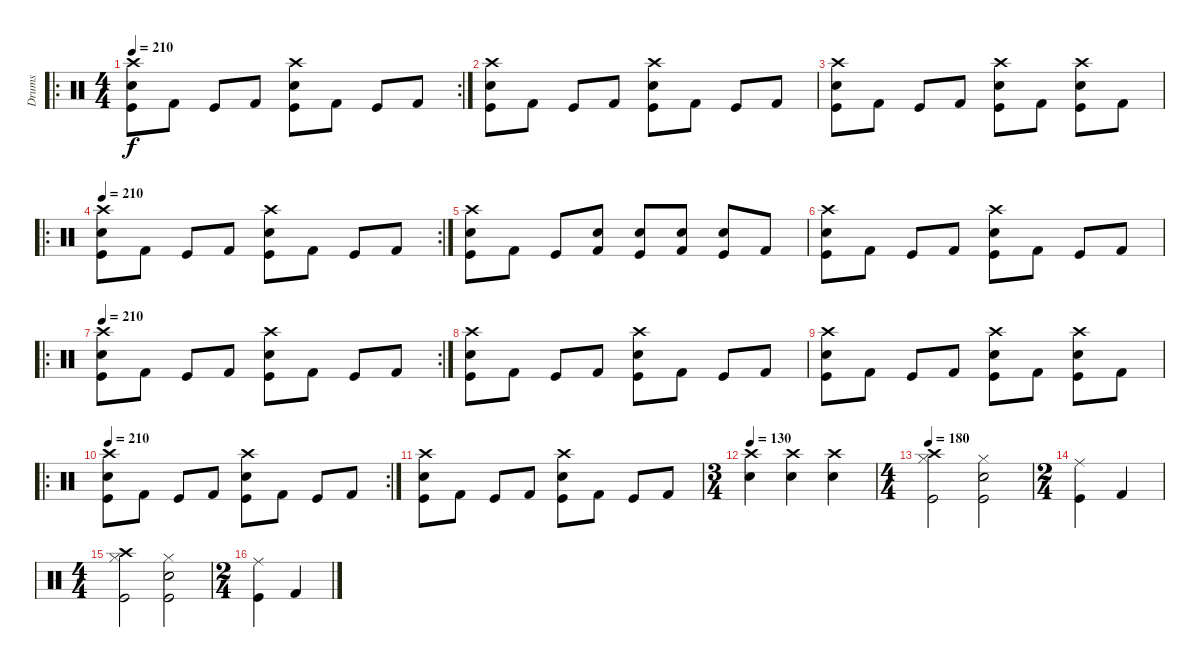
\track ("Drums" "Drums") {instrument percussion}
\staff {score}
\articulation defaults
\ro
\rc 2
\ts (4 4)
\tempo 210
\clef neutral
\ks c
("Crash high (hit)" "Snare (hit) 2" "Kick (hit)").8{dy f} "Kick (hit) 2".8 "Kick (hit)".8 "Kick (hit) 2".8 ("Crash high (hit)" "Snare (hit) 2" "Kick (hit)").8 "Kick (hit) 2".8 "Kick (hit)".8 "Kick (hit) 2".8 |
("Crash high (hit)" "Snare (hit) 2" "Kick (hit)").8 "Kick (hit) 2".8 "Kick (hit)".8 "Kick (hit) 2".8 ("Crash high (hit)" "Snare (hit) 2" "Kick (hit)").8 "Kick (hit) 2".8 "Kick (hit)".8 "Kick (hit) 2".8 |
("Crash high (hit)" "Snare (hit) 2" "Kick (hit)").8 "Kick (hit) 2".8 "Kick (hit)".8 "Kick (hit) 2".8 ("Crash high (hit)" "Snare (hit) 2" "Kick (hit)").8 "Kick (hit) 2".8 ("Crash high (hit)" "Snare (hit) 2" "Kick (hit)").8 "Kick (hit) 2".8 |
\ro
\rc 2
\tempo 210
("Crash high (hit)" "Snare (hit) 2" "Kick (hit)").8 "Kick (hit) 2".8 "Kick (hit)".8 "Kick (hit) 2".8 ("Crash high (hit)" "Snare (hit) 2" "Kick (hit)").8 "Kick (hit) 2".8 "Kick (hit)".8 "Kick (hit) 2".8 |
("Crash high (hit)" "Snare (hit) 2" "Kick (hit)").8 "Kick (hit) 2".8 "Kick (hit)".8 ("Snare (hit) 2" "Kick (hit) 2").8 ("Snare (hit) 2" "Kick (hit)").8 ("Snare (hit) 2" "Kick (hit) 2").8 ("Snare (hit) 2" "Kick (hit)").8 "Kick (hit) 2".8 |
("Crash high (hit)" "Snare (hit) 2" "Kick (hit)").8 "Kick (hit) 2".8 "Kick (hit)".8 "Kick (hit) 2".8 ("Crash high (hit)" "Snare (hit) 2" "Kick (hit)").8 "Kick (hit) 2".8 "Kick (hit)".8 "Kick (hit) 2".8 |
\ro
\rc 2
\tempo 210
("Crash high (hit)" "Snare (hit) 2" "Kick (hit)").8 "Kick (hit) 2".8 "Kick (hit)".8 "Kick (hit) 2".8 ("Crash high (hit)" "Snare (hit) 2" "Kick (hit)").8 "Kick (hit) 2".8 "Kick (hit)".8 "Kick (hit) 2".8 |
("Crash high (hit)" "Snare (hit) 2" "Kick (hit)").8 "Kick (hit) 2".8 "Kick (hit)".8 "Kick (hit) 2".8 ("Crash high (hit)" "Snare (hit) 2" "Kick (hit)").8 "Kick (hit) 2".8 "Kick (hit)".8 "Kick (hit) 2".8 |
("Crash high (hit)" "Snare (hit) 2" "Kick (hit)").8 "Kick (hit) 2".8 "Kick (hit)".8 "Kick (hit) 2".8 ("Crash high (hit)" "Snare (hit) 2" "Kick (hit)").8 "Kick (hit) 2".8 ("Crash high (hit)" "Snare (hit) 2" "Kick (hit)").8 "Kick (hit) 2".8 |
\ro
\rc 2
\tempo 210
("Crash high (hit)" "Snare (hit) 2" "Kick (hit)").8 "Kick (hit) 2".8 "Kick (hit)".8 "Kick (hit) 2".8 ("Crash high (hit)" "Snare (hit) 2" "Kick (hit)").8 "Kick (hit) 2".8 "Kick (hit)".8 "Kick (hit) 2".8 |
("Crash high (hit)" "Snare (hit) 2" "Kick (hit)").8 "Kick (hit) 2".8 "Kick (hit)".8 "Kick (hit) 2".8 ("Crash high (hit)" "Snare (hit) 2" "Kick (hit)").8 "Kick (hit) 2".8 "Kick (hit)".8 "Kick (hit) 2".8 |
\ts (3 4)
\tempo 130
("Crash high (hit)" "Snare (hit) 2").4 ("Crash high (hit)" "Snare (hit) 2").4 ("Crash high (hit)" "Snare (hit) 2").4 |
\ts (4 4)
\tempo 180
("Crash high (hit)" "Kick (hit)" "Hi-Hat (closed)").2 ("Snare (hit) 2" "Kick (hit)" "Hi-Hat (closed)").2 |
\ts (2 4)
("Ride (middle)" "Kick (hit)").4 "Kick (hit) 2".4 |
\ts (4 4)
("Crash high (hit)" "Kick (hit)" "Hi-Hat (closed)").2 ("Snare (hit) 2" "Kick (hit)" "Hi-Hat (closed)").2 |
\ts (2 4)
("Ride (middle)" "Kick (hit)").4 "Kick (hit) 2".4
